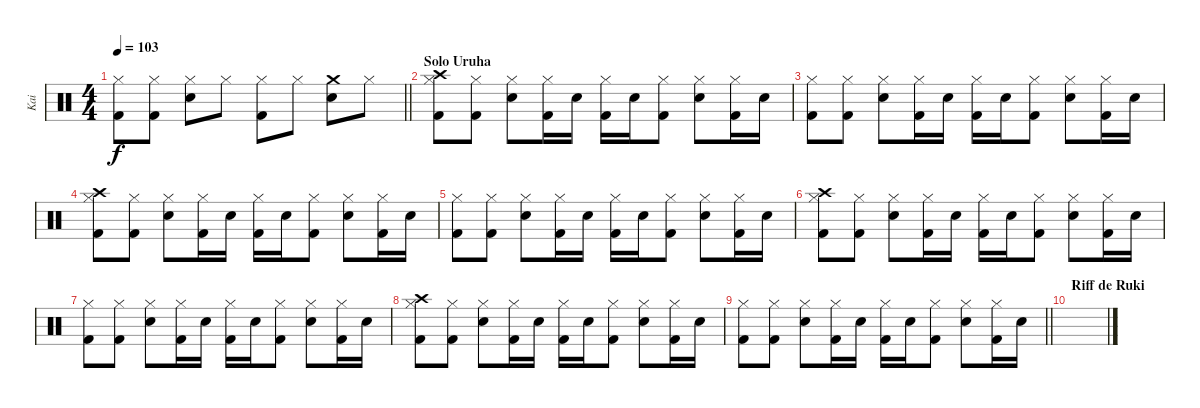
\track ("Kai" "Kai") {instrument percussion}
\staff {score}
\articulation defaults
\ts (4 4)
\tempo 103
\clef neutral
\barLineRight lightlight
\ks c
("Hi-Hat (closed)" "Kick (hit) 2").8{dy f} ("Hi-Hat (closed)" "Kick (hit) 2").8 ("Hi-Hat (closed)" "Electric Snare (hit)").8 "Hi-Hat (closed)".8 ("Hi-Hat (closed)" "Kick (hit) 2").8 "Hi-Hat (closed)".8 ("Crash medium (hit)" "Electric Snare (hit)").8 "Hi-Hat (closed)".8 |
\section ("" "Solo Uruha")
("Crash high (hit)" "Hi-Hat (closed)" "Kick (hit) 2").8 ("Hi-Hat (closed)" "Kick (hit) 2").8 ("Hi-Hat (closed)" "Electric Snare (hit)").8 ("Hi-Hat (closed)" "Kick (hit) 2").16 "Electric Snare (hit)".16 ("Hi-Hat (closed)" "Kick (hit) 2").16 "Electric Snare (hit)".16 ("Hi-Hat (closed)" "Kick (hit) 2").8 ("Hi-Hat (closed)" "Electric Snare (hit)").8 ("Hi-Hat (closed)" "Kick (hit) 2").16 "Electric Snare (hit)".16 |
("Hi-Hat (closed)" "Kick (hit) 2").8 ("Hi-Hat (closed)" "Kick (hit) 2").8 ("Hi-Hat (closed)" "Electric Snare (hit)").8 ("Hi-Hat (closed)" "Kick (hit) 2").16 "Electric Snare (hit)".16 ("Hi-Hat (closed)" "Kick (hit) 2").16 "Electric Snare (hit)".16 ("Hi-Hat (closed)" "Kick (hit) 2").8 ("Hi-Hat (closed)" "Electric Snare (hit)").8 ("Hi-Hat (closed)" "Kick (hit) 2").16 "Electric Snare (hit)".16 |
("Crash high (hit)" "Hi-Hat (closed)" "Kick (hit) 2").8 ("Hi-Hat (closed)" "Kick (hit) 2").8 ("Hi-Hat (closed)" "Electric Snare (hit)").8 ("Hi-Hat (closed)" "Kick (hit) 2").16 "Electric Snare (hit)".16 ("Hi-Hat (closed)" "Kick (hit) 2").16 "Electric Snare (hit)".16 ("Hi-Hat (closed)" "Kick (hit) 2").8 ("Hi-Hat (closed)" "Electric Snare (hit)").8 ("Hi-Hat (closed)" "Kick (hit) 2").16 "Electric Snare (hit)".16 |
("Hi-Hat (closed)" "Kick (hit) 2").8 ("Hi-Hat (closed)" "Kick (hit) 2").8 ("Hi-Hat (closed)" "Electric Snare (hit)").8 ("Hi-Hat (closed)" "Kick (hit) 2").16 "Electric Snare (hit)".16 ("Hi-Hat (closed)" "Kick (hit) 2").16 "Electric Snare (hit)".16 ("Hi-Hat (closed)" "Kick (hit) 2").8 ("Hi-Hat (closed)" "Electric Snare (hit)").8 ("Hi-Hat (closed)" "Kick (hit) 2").16 "Electric Snare (hit)".16 |
("Crash high (hit)" "Hi-Hat (closed)" "Kick (hit) 2").8 ("Hi-Hat (closed)" "Kick (hit) 2").8 ("Hi-Hat (closed)" "Electric Snare (hit)").8 ("Hi-Hat (closed)" "Kick (hit) 2").16 "Electric Snare (hit)".16 ("Hi-Hat (closed)" "Kick (hit) 2").16 "Electric Snare (hit)".16 ("Hi-Hat (closed)" "Kick (hit) 2").8 ("Hi-Hat (closed)" "Electric Snare (hit)").8 ("Hi-Hat (closed)" "Kick (hit) 2").16 "Electric Snare (hit)".16 |
("Hi-Hat (closed)" "Kick (hit) 2").8 ("Hi-Hat (closed)" "Kick (hit) 2").8 ("Hi-Hat (closed)" "Electric Snare (hit)").8 ("Hi-Hat (closed)" "Kick (hit) 2").16 "Electric Snare (hit)".16 ("Hi-Hat (closed)" "Kick (hit) 2").16 "Electric Snare (hit)".16 ("Hi-Hat (closed)" "Kick (hit) 2").8 ("Hi-Hat (closed)" "Electric Snare (hit)").8 ("Hi-Hat (closed)" "Kick (hit) 2").16 "Electric Snare (hit)".16 |
("Crash high (hit)" "Hi-Hat (closed)" "Kick (hit) 2").8 ("Hi-Hat (closed)" "Kick (hit) 2").8 ("Hi-Hat (closed)" "Electric Snare (hit)").8 ("Hi-Hat (closed)" "Kick (hit) 2").16 "Electric Snare (hit)".16 ("Hi-Hat (closed)" "Kick (hit) 2").16 "Electric Snare (hit)".16 ("Hi-Hat (closed)" "Kick (hit) 2").8 ("Hi-Hat (closed)" "Electric Snare (hit)").8 ("Hi-Hat (closed)" "Kick (hit) 2").16 "Electric Snare (hit)".16 |
\barLineRight lightlight
("Hi-Hat (closed)" "Kick (hit) 2").8 ("Hi-Hat (closed)" "Kick (hit) 2").8 ("Hi-Hat (closed)" "Electric Snare (hit)").8 ("Hi-Hat (closed)" "Kick (hit) 2").16 "Electric Snare (hit)".16 ("Hi-Hat (closed)" "Kick (hit) 2").16 "Electric Snare (hit)".16 ("Hi-Hat (closed)" "Kick (hit) 2").8 ("Hi-Hat (closed)" "Electric Snare (hit)").8 ("Hi-Hat (closed)" "Kick (hit) 2").16 "Electric Snare (hit)".16 |
\section ("" "Riff de Ruki")
